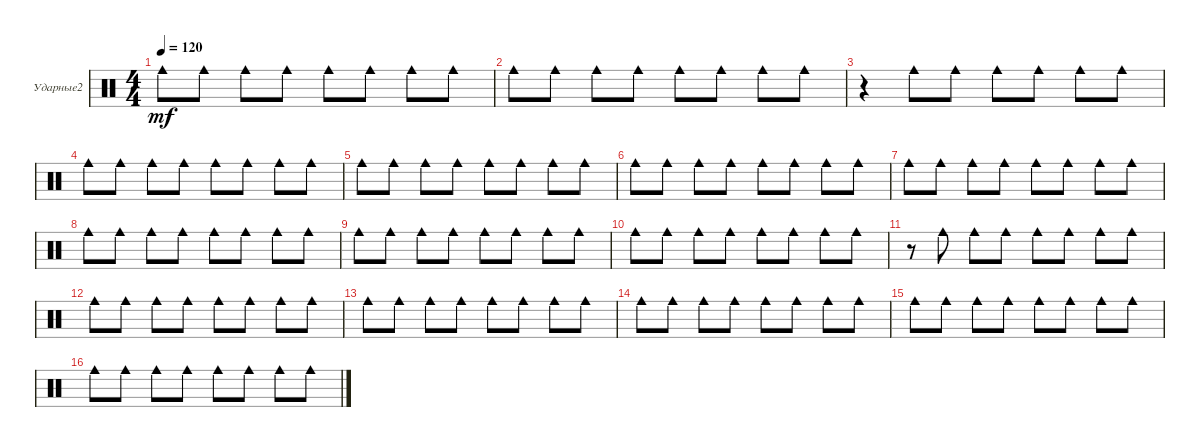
\defaultSystemsLayout 4
\bracketExtendMode groupsimilarinstruments
\firstSystemTrackNameOrientation horizontal
\otherSystemsTrackNameOrientation horizontal
\track ("Е.Кулаков" "Ударные2") {instrument percussion}
\staff {score}
\articulation defaults
\ts (4 4)
\tempo 120
\clef neutral
\ks c "Cowbell medium (hit)".8{dy mf} "Cowbell medium (hit)".8 "Cowbell medium (hit)".8 "Cowbell medium (hit)".8 "Cowbell medium (hit)".8 "Cowbell medium (hit)".8 "Cowbell medium (hit)".8 "Cowbell medium (hit)".8
|
"Cowbell medium (hit)".8 "Cowbell medium (hit)".8 "Cowbell medium (hit)".8 "Cowbell medium (hit)".8 "Cowbell medium (hit)".8 "Cowbell medium (hit)".8 "Cowbell medium (hit)".8 "Cowbell medium (hit)".8 |
r.4 "Cowbell medium (hit)".8 "Cowbell medium (hit)".8 "Cowbell medium (hit)".8 "Cowbell medium (hit)".8 "Cowbell medium (hit)".8 "Cowbell medium (hit)".8 |
"Cowbell medium (hit)".8 "Cowbell medium (hit)".8 "Cowbell medium (hit)".8 "Cowbell medium (hit)".8 "Cowbell medium (hit)".8 "Cowbell medium (hit)".8 "Cowbell medium (hit)".8 "Cowbell medium (hit)".8 |
"Cowbell medium (hit)".8 "Cowbell medium (hit)".8 "Cowbell medium (hit)".8 "Cowbell medium (hit)".8 "Cowbell medium (hit)".8 "Cowbell medium (hit)".8 "Cowbell medium (hit)".8 "Cowbell medium (hit)".8 |
"Cowbell medium (hit)".8 "Cowbell medium (hit)".8 "Cowbell medium (hit)".8 "Cowbell medium (hit)".8 "Cowbell medium (hit)".8 "Cowbell medium (hit)".8 "Cowbell medium (hit)".8 "Cowbell medium (hit)".8 |
"Cowbell medium (hit)".8 "Cowbell medium (hit)".8 "Cowbell medium (hit)".8 "Cowbell medium (hit)".8 "Cowbell medium (hit)".8 "Cowbell medium (hit)".8 "Cowbell medium (hit)".8 "Cowbell medium (hit)".8 |
"Cowbell medium (hit)".8 "Cowbell medium (hit)".8 "Cowbell medium (hit)".8 "Cowbell medium (hit)".8 "Cowbell medium (hit)".8 "Cowbell medium (hit)".8 "Cowbell medium (hit)".8 "Cowbell medium (hit)".8 |
"Cowbell medium (hit)".8 "Cowbell medium (hit)".8 "Cowbell medium (hit)".8 "Cowbell medium (hit)".8 "Cowbell medium (hit)".8 "Cowbell medium (hit)".8 "Cowbell medium (hit)".8 "Cowbell medium (hit)".8 |
"Cowbell medium (hit)".8 "Cowbell medium (hit)".8 "Cowbell medium (hit)".8 "Cowbell medium (hit)".8 "Cowbell medium (hit)".8 "Cowbell medium (hit)".8 "Cowbell medium (hit)".8 "Cowbell medium (hit)".8 |
r.8 "Cowbell medium (hit)".8 "Cowbell medium (hit)".8 "Cowbell medium (hit)".8 "Cowbell medium (hit)".8 "Cowbell medium (hit)".8 "Cowbell medium (hit)".8 "Cowbell medium (hit)".8 |
"Cowbell medium (hit)".8 "Cowbell medium (hit)".8 "Cowbell medium (hit)".8 "Cowbell medium (hit)".8 "Cowbell medium (hit)".8 "Cowbell medium (hit)".8 "Cowbell medium (hit)".8 "Cowbell medium (hit)".8 |
"Cowbell medium (hit)".8 "Cowbell medium (hit)".8 "Cowbell medium (hit)".8 "Cowbell medium (hit)".8 "Cowbell medium (hit)".8 "Cowbell medium (hit)".8 "Cowbell medium (hit)".8 "Cowbell medium (hit)".8 |
"Cowbell medium (hit)".8 "Cowbell medium (hit)".8 "Cowbell medium (hit)".8 "Cowbell medium (hit)".8 "Cowbell medium (hit)".8 "Cowbell medium (hit)".8 "Cowbell medium (hit)".8 "Cowbell medium (hit)".8 |
"Cowbell medium (hit)".8 "Cowbell medium (hit)".8 "Cowbell medium (hit)".8 "Cowbell medium (hit)".8 "Cowbell medium (hit)".8 "Cowbell medium (hit)".8 "Cowbell medium (hit)".8 "Cowbell medium (hit)".8 |
"Cowbell medium (hit)".8 "Cowbell medium (hit)".8 "Cowbell medium (hit)".8 "Cowbell medium (hit)".8 "Cowbell medium (hit)".8 "Cowbell medium (hit)".8 "Cowbell medium (hit)".8 "Cowbell medium (hit)".8
